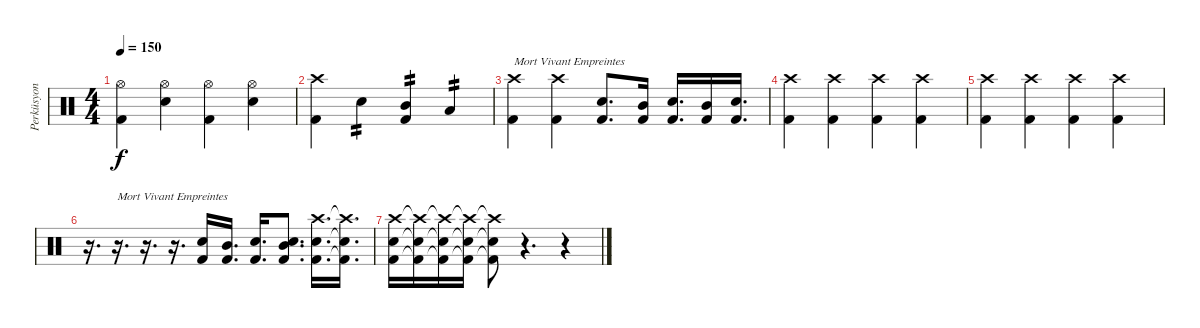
\track ("Perküsyon" "Perküsyon") {instrument percussion}
\staff {score}
\articulation defaults
\ts (4 4)
\tempo 150
\clef neutral
\ks c
("Hi-Hat (open)" "Kick (hit) 2").4{dy f} ("Hi-Hat (open)" "Snare (hit) 2").4 ("Hi-Hat (open)" "Kick (hit) 2").4 ("Hi-Hat (open)" "Snare (hit) 2").4 |
("Crash high (hit)" "Kick (hit) 2").4 "Snare (hit) 2".4{tp 2} ("Mid Tom (hit)" "Kick (hit) 2").4{tp 2} "Low Tom (hit)".4{tp 2} |
("Kick (hit) 2" "Crash high (hit)").4{txt "Mort Vivant Empreintes"} ("Kick (hit) 2" "Crash high (hit)").4 ("Kick (hit) 2" "Snare (hit) 2").8{d} ("Kick (hit) 2" "Mid Tom (hit)").16 ("Kick (hit) 2" "Snare (hit) 2").16{d} ("Kick (hit) 2" "Mid Tom (hit)").16 ("Kick (hit) 2" "Snare (hit) 2").16{d} |
("Kick (hit) 2" "Crash high (hit)").4 ("Kick (hit) 2" "Crash high (hit)").4 ("Kick (hit) 2" "Crash high (hit)").4 ("Kick (hit) 2" "Crash high (hit)").4 |
("Kick (hit) 2" "Crash high (hit)").4 ("Kick (hit) 2" "Crash high (hit)").4 ("Kick (hit) 2" "Crash high (hit)").4 ("Kick (hit) 2" "Crash high (hit)").4 |
r.16{d} r.16{d txt "Mort Vivant Empreintes"} r.16{d} r.16{d} ("Kick (hit) 2" "Snare (hit) 2").16 ("Kick (hit) 2" "Mid Tom (hit)").16{d} ("Kick (hit) 2" "Snare (hit) 2").16{d} ("Kick (hit) 2" "Snare (hit) 2" "Mid Tom (hit)").8{d} ("Kick (hit) 2" "Snare (hit) 2" "Crash high (hit)").16{d} ("Kick (hit) 2"{t} "Snare (hit) 2"{t} "Crash high (hit)"{t}).16{d} |
("Kick (hit) 2" "Snare (hit) 2" "Crash high (hit)").16 ("Kick (hit) 2"{t} "Snare (hit) 2"{t} "Crash high (hit)"{t}).16 ("Kick (hit) 2"{t} "Snare (hit) 2"{t} "Crash high (hit)"{t}).16 ("Kick (hit) 2"{t} "Snare (hit) 2"{t} "Crash high (hit)"{t}).16 ("Kick (hit) 2"{t} "Snare (hit) 2"{t} "Crash high (hit)"{t}).8 r.4{d} r.4
